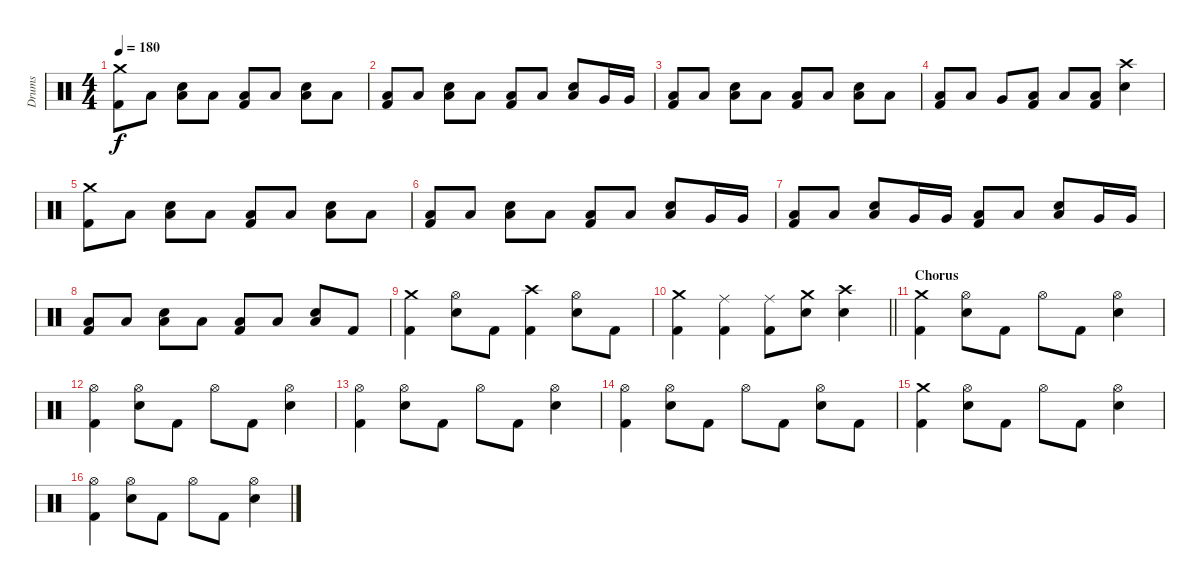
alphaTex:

\track ("Drums" "Drums") {instrument percussion}
\staff {score}
\articulation defaults
\ts (4 4)
\tempo 180
\clef neutral
\ks c
("Crash medium (hit)" "Kick (hit) 2").8{dy f} "Low Floor Tom (hit)".8 ("Low Floor Tom (hit)" "Electric Snare (hit)").8 "Low Floor Tom (hit)".8 ("Low Floor Tom (hit)" "Kick (hit) 2").8 "Low Floor Tom (hit)".8 ("Low Floor Tom (hit)" "Electric Snare (hit)").8 "Low Floor Tom (hit)".8 |
("Low Floor Tom (hit)" "Kick (hit) 2").8 "Low Floor Tom (hit)".8 ("Low Floor Tom (hit)" "Electric Snare (hit)").8 "Low Floor Tom (hit)".8 ("Low Floor Tom (hit)" "Kick (hit) 2").8 "Low Floor Tom (hit)".8 ("Low Floor Tom (hit)" "Electric Snare (hit)").8 "Very Low Tom (hit)".16 "Very Low Tom (hit)".16 |
("Low Floor Tom (hit)" "Kick (hit) 2").8 "Low Floor Tom (hit)".8 ("Low Floor Tom (hit)" "Electric Snare (hit)").8 "Low Floor Tom (hit)".8 ("Low Floor Tom (hit)" "Kick (hit) 2").8 "Low Floor Tom (hit)".8 ("Low Floor Tom (hit)" "Electric Snare (hit)").8 "Low Floor Tom (hit)".8 |
("Low Tom (hit)" "Kick (hit) 2").8 "Low Floor Tom (hit)".8 "Very Low Tom (hit)".8 ("Low Floor Tom (hit)" "Kick (hit) 2").8 "Low Floor Tom (hit)".8 ("Low Floor Tom (hit)" "Kick (hit) 2").8 ("Crash high (hit)" "Electric Snare (hit)").4 |
("Crash medium (hit)" "Kick (hit) 2").8 "Low Floor Tom (hit)".8 ("Low Floor Tom (hit)" "Electric Snare (hit)").8 "Low Floor Tom (hit)".8 ("Low Floor Tom (hit)" "Kick (hit) 2").8 "Low Floor Tom (hit)".8 ("Low Floor Tom (hit)" "Electric Snare (hit)").8 "Low Floor Tom (hit)".8 |
("Low Floor Tom (hit)" "Kick (hit) 2").8 "Low Floor Tom (hit)".8 ("Low Floor Tom (hit)" "Electric Snare (hit)").8 "Low Floor Tom (hit)".8 ("Low Floor Tom (hit)" "Kick (hit) 2").8 "Low Floor Tom (hit)".8 ("Low Floor Tom (hit)" "Electric Snare (hit)").8 "Very Low Tom (hit)".16 "Very Low Tom (hit)".16 |
("Low Floor Tom (hit)" "Kick (hit) 2").8 "Low Floor Tom (hit)".8 ("Low Floor Tom (hit)" "Electric Snare (hit)").8 "Very Low Tom (hit)".16 "Very Low Tom (hit)".16 ("Low Floor Tom (hit)" "Kick (hit) 2").8 "Low Floor Tom (hit)".8 ("Low Floor Tom (hit)" "Electric Snare (hit)").8 "Very Low Tom (hit)".16 "Very Low Tom (hit)".16 |
("Low Floor Tom (hit)" "Kick (hit) 2").8 "Low Floor Tom (hit)".8 ("Low Floor Tom (hit)" "Electric Snare (hit)").8 "Low Floor Tom (hit)".8 ("Low Floor Tom (hit)" "Kick (hit) 2").8 "Low Floor Tom (hit)".8 ("Low Floor Tom (hit)" "Electric Snare (hit)").8 "Kick (hit) 2".8 |
("Crash medium (hit)" "Kick (hit) 2").4 ("Hi-Hat (open)" "Electric Snare (hit)").8 "Kick (hit) 2".8 ("Crash high (hit)" "Kick (hit) 2").4 ("Hi-Hat (open)" "Electric Snare (hit)").8 "Kick (hit) 2".8 |
\barLineRight lightlight
("Crash medium (hit)" "Kick (hit) 2").4 ("Ride (middle)" "Kick (hit) 2").4 ("Ride (middle)" "Kick (hit) 2").8 ("Crash medium (hit)" "Electric Snare (hit)").8 ("Crash high (hit)" "Electric Snare (hit)").4 |
\section ("" "Chorus")
("Crash medium (hit)" "Kick (hit) 2").4 ("Hi-Hat (open)" "Electric Snare (hit)").8 "Kick (hit) 2".8 "Hi-Hat (open)".8 "Kick (hit) 2".8 ("Hi-Hat (open)" "Electric Snare (hit)").4 |
("Hi-Hat (open)" "Kick (hit) 2").4 ("Hi-Hat (open)" "Electric Snare (hit)").8 "Kick (hit) 2".8 "Hi-Hat (open)".8 "Kick (hit) 2".8 ("Hi-Hat (open)" "Electric Snare (hit)").4 |
("Hi-Hat (open)" "Kick (hit) 2").4 ("Hi-Hat (open)" "Electric Snare (hit)").8 "Kick (hit) 2".8 "Hi-Hat (open)".8 "Kick (hit) 2".8 ("Hi-Hat (open)" "Electric Snare (hit)").4 |
("Hi-Hat (open)" "Kick (hit) 2").4 ("Hi-Hat (open)" "Electric Snare (hit)").8 "Kick (hit) 2".8 "Hi-Hat (open)".8 "Kick (hit) 2".8 ("Hi-Hat (open)" "Electric Snare (hit)").8 "Kick (hit) 2".8 |
("Crash medium (hit)" "Kick (hit) 2").4 ("Hi-Hat (open)" "Electric Snare (hit)").8 "Kick (hit) 2".8 "Hi-Hat (open)".8 "Kick (hit) 2".8 ("Hi-Hat (open)" "Electric Snare (hit)").4 |
("Hi-Hat (open)" "Kick (hit) 2").4 ("Hi-Hat (open)" "Electric Snare (hit)").8 "Kick (hit) 2".8 "Hi-Hat (open)".8 "Kick (hit) 2".8 ("Hi-Hat (open)" "Electric Snare (hit)").4
